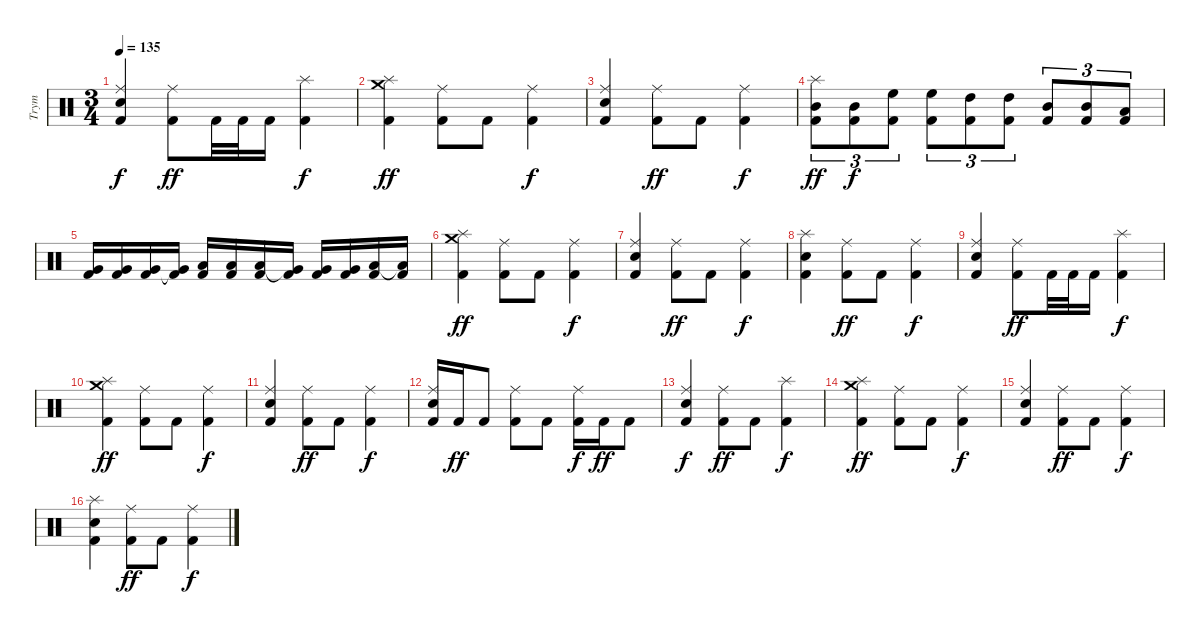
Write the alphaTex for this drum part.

\track ("Trym" "Trym") {instrument percussion}
\staff {score}
\articulation defaults
\ts (3 4)
\tempo 135
\clef neutral
\ks c
("Snare (hit) 2" "Ride (middle)" "Kick (hit) 2").4{dy f} ("Ride (middle)" "Kick (hit) 2").8{dy ff} "Kick (hit) 2".32 "Kick (hit) 2".32 "Kick (hit) 2".16 ("Splash (hit)" "Kick (hit) 2").4{dy f} |
("Crash medium (hit)" "Splash (hit)" "Kick (hit) 2").4{dy ff} ("Ride (middle)" "Kick (hit) 2").8 "Kick (hit) 2".8 ("Ride (middle)" "Kick (hit) 2").4{dy f} |
("Snare (hit) 2" "Ride (middle)" "Kick (hit) 2").4 ("Ride (middle)" "Kick (hit) 2").8{dy ff} "Kick (hit) 2".8 ("Ride (middle)" "Kick (hit) 2").4{dy f} |
("Splash (hit)" "Mid Tom (hit)" "Kick (hit) 2").8{tu (3 2) dy ff} ("Mid Tom (hit)" "Kick (hit) 2").8{tu (3 2) dy f} ("High Floor Tom (hit)" "Kick (hit) 2").8{tu (3 2)} ("High Floor Tom (hit)" "Kick (hit) 2").8{tu (3 2)} ("High Tom (hit)" "Kick (hit) 2").8{tu (3 2)} ("High Tom (hit)" "Kick (hit) 2").8{tu (3 2)} ("Mid Tom (hit)" "Kick (hit) 2").8{tu (3 2)} ("Mid Tom (hit)" "Kick (hit) 2").8{tu (3 2)} ("Low Tom (hit)" "Kick (hit) 2").8{tu (3 2)} |
("Very Low Tom (hit)" "Kick (hit) 2").16 ("Very Low Tom (hit)" "Kick (hit) 2").16 ("Very Low Tom (hit)" "Kick (hit) 2").16 ("Very Low Tom (hit)"{t} "Kick (hit) 2").16 ("Low Tom (hit)" "Kick (hit) 2").16 ("Low Tom (hit)" "Kick (hit) 2").16 ("Low Tom (hit)" "Kick (hit) 2").16 ("Very Low Tom (hit)"{t} "Kick (hit) 2").16 ("Very Low Tom (hit)" "Kick (hit) 2").16 ("Very Low Tom (hit)" "Kick (hit) 2").16 ("Low Tom (hit)" "Kick (hit) 2").16 ("Low Tom (hit)"{t} "Kick (hit) 2").16 |
("Crash medium (hit)" "Splash (hit)" "Kick (hit) 2").4{dy ff} ("Ride (middle)" "Kick (hit) 2").8 "Kick (hit) 2".8 ("Ride (middle)" "Kick (hit) 2").4{dy f} |
("Snare (hit) 2" "Ride (middle)" "Kick (hit) 2").4 ("Ride (middle)" "Kick (hit) 2").8{dy ff} "Kick (hit) 2".8 ("Ride (middle)" "Kick (hit) 2").4{dy f} |
("Snare (hit) 2" "Splash (hit)" "Kick (hit) 2").4 ("Ride (middle)" "Kick (hit) 2").8{dy ff} "Kick (hit) 2".8 ("Ride (middle)" "Kick (hit) 2").4{dy f} |
("Snare (hit) 2" "Ride (middle)" "Kick (hit) 2").4 ("Ride (middle)" "Kick (hit) 2").8{dy ff} "Kick (hit) 2".32 "Kick (hit) 2".32 "Kick (hit) 2".16 ("Splash (hit)" "Kick (hit) 2").4{dy f} |
("Crash medium (hit)" "Splash (hit)" "Kick (hit) 2").4{dy ff} ("Ride (middle)" "Kick (hit) 2").8 "Kick (hit) 2".8 ("Ride (middle)" "Kick (hit) 2").4{dy f} |
("Snare (hit) 2" "Ride (middle)" "Kick (hit) 2").4 ("Ride (middle)" "Kick (hit) 2").8{dy ff} "Kick (hit) 2".8 ("Ride (middle)" "Kick (hit) 2").4{dy f} |
("Snare (hit) 2" "Ride (middle)" "Kick (hit) 2").16 "Kick (hit) 2".16{dy ff} "Kick (hit) 2".8 ("Ride (middle)" "Kick (hit) 2").8 "Kick (hit) 2".8 ("Ride (middle)" "Kick (hit) 2").16{dy f} "Kick (hit) 2".16{dy ff} "Kick (hit) 2".8 |
("Snare (hit) 2" "Ride (middle)" "Kick (hit) 2").4{dy f} ("Ride (middle)" "Kick (hit) 2").8{dy ff} "Kick (hit) 2".8 ("Splash (hit)" "Kick (hit) 2").4{dy f} |
("Crash medium (hit)" "Splash (hit)" "Kick (hit) 2").4{dy ff} ("Ride (middle)" "Kick (hit) 2").8 "Kick (hit) 2".8 ("Ride (middle)" "Kick (hit) 2").4{dy f} |
("Snare (hit) 2" "Ride (middle)" "Kick (hit) 2").4 ("Ride (middle)" "Kick (hit) 2").8{dy ff} "Kick (hit) 2".8 ("Ride (middle)" "Kick (hit) 2").4{dy f} |
("Snare (hit) 2" "Splash (hit)" "Kick (hit) 2").4 ("Ride (middle)" "Kick (hit) 2").8{dy ff} "Kick (hit) 2".8 ("Ride (middle)" "Kick (hit) 2").4{dy f}
